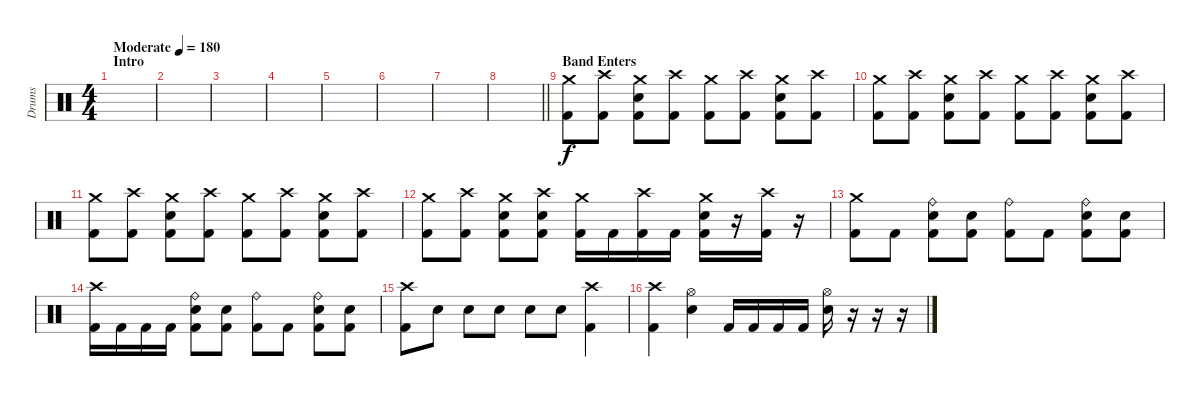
\track ("Drums" "Drums") {instrument percussion}
\staff {score}
\articulation defaults
\ts (4 4)
\section ("" "Intro")
\tempo (180 "Moderate")
\clef neutral
\ks c
|
|
|
|
|
|
|
\barLineRight lightlight
|
\section ("" "Band Enters")
("Crash medium (hit)" "Kick (hit) 2").8 ("Crash high (hit)" "Kick (hit) 2").8 ("Crash medium (hit)" "Electric Snare (hit)" "Kick (hit) 2").8 ("Crash high (hit)" "Kick (hit) 2").8 ("Crash medium (hit)" "Kick (hit) 2").8 ("Crash high (hit)" "Kick (hit) 2").8 ("Crash medium (hit)" "Electric Snare (hit)" "Kick (hit) 2").8 ("Crash high (hit)" "Kick (hit) 2").8 |
("Crash medium (hit)" "Kick (hit) 2").8 ("Crash high (hit)" "Kick (hit) 2").8 ("Crash medium (hit)" "Electric Snare (hit)" "Kick (hit) 2").8 ("Crash high (hit)" "Kick (hit) 2").8 ("Crash medium (hit)" "Kick (hit) 2").8 ("Crash high (hit)" "Kick (hit) 2").8 ("Crash medium (hit)" "Electric Snare (hit)" "Kick (hit) 2").8 ("Crash high (hit)" "Kick (hit) 2").8 |
("Crash medium (hit)" "Kick (hit) 2").8 ("Crash high (hit)" "Kick (hit) 2").8 ("Crash medium (hit)" "Electric Snare (hit)" "Kick (hit) 2").8 ("Crash high (hit)" "Kick (hit) 2").8 ("Crash medium (hit)" "Kick (hit) 2").8 ("Crash high (hit)" "Kick (hit) 2").8 ("Crash medium (hit)" "Electric Snare (hit)" "Kick (hit) 2").8 ("Crash high (hit)" "Kick (hit) 2").8 |
("Crash medium (hit)" "Kick (hit) 2").8 ("Crash high (hit)" "Kick (hit) 2").8 ("Crash medium (hit)" "Electric Snare (hit)" "Kick (hit) 2").8 ("Crash high (hit)" "Electric Snare (hit)" "Kick (hit) 2").8 ("Crash medium (hit)" "Kick (hit) 2").16 "Kick (hit) 2".16 ("Crash high (hit)" "Kick (hit) 2").16 "Kick (hit) 2".16 ("Crash medium (hit)" "Electric Snare (hit)" "Kick (hit) 2").16 r.16 ("Crash high (hit)" "Kick (hit) 2").16 r.16 |
("Crash medium (hit)" "Kick (hit) 2").8 "Kick (hit) 2".8 ("Ride (bell)" "Electric Snare (hit)" "Kick (hit) 2").8 ("Electric Snare (hit)" "Kick (hit) 2").8 ("Ride (bell)" "Kick (hit) 2").8 "Kick (hit) 2".8 ("Ride (bell)" "Electric Snare (hit)" "Kick (hit) 2").8 ("Electric Snare (hit)" "Kick (hit) 2").8 |
("Crash high (hit)" "Kick (hit) 2").16 "Kick (hit) 2".16 "Kick (hit) 2".16 "Kick (hit) 2".16 ("Ride (bell)" "Electric Snare (hit)" "Kick (hit) 2").8 ("Electric Snare (hit)" "Kick (hit) 2").8 ("Ride (bell)" "Kick (hit) 2").8 "Kick (hit) 2".8 ("Ride (bell)" "Electric Snare (hit)" "Kick (hit) 2").8 ("Electric Snare (hit)" "Kick (hit) 2").8 |
("Crash high (hit)" "Kick (hit) 2").8 "Electric Snare (hit)".8 "Electric Snare (hit)".8 "Electric Snare (hit)".8 "Electric Snare (hit)".8 "Electric Snare (hit)".8 ("Crash high (hit)" "Kick (hit) 2").4 |
("Crash high (hit)" "Kick (hit) 2").4 ("Hi-Hat (open)" "Electric Snare (hit)").4 "Kick (hit) 2".16 "Kick (hit) 2".16 "Kick (hit) 2".16 "Kick (hit) 2".16 ("Hi-Hat (open)" "Electric Snare (hit)").16 r.16 r.16 r.16
